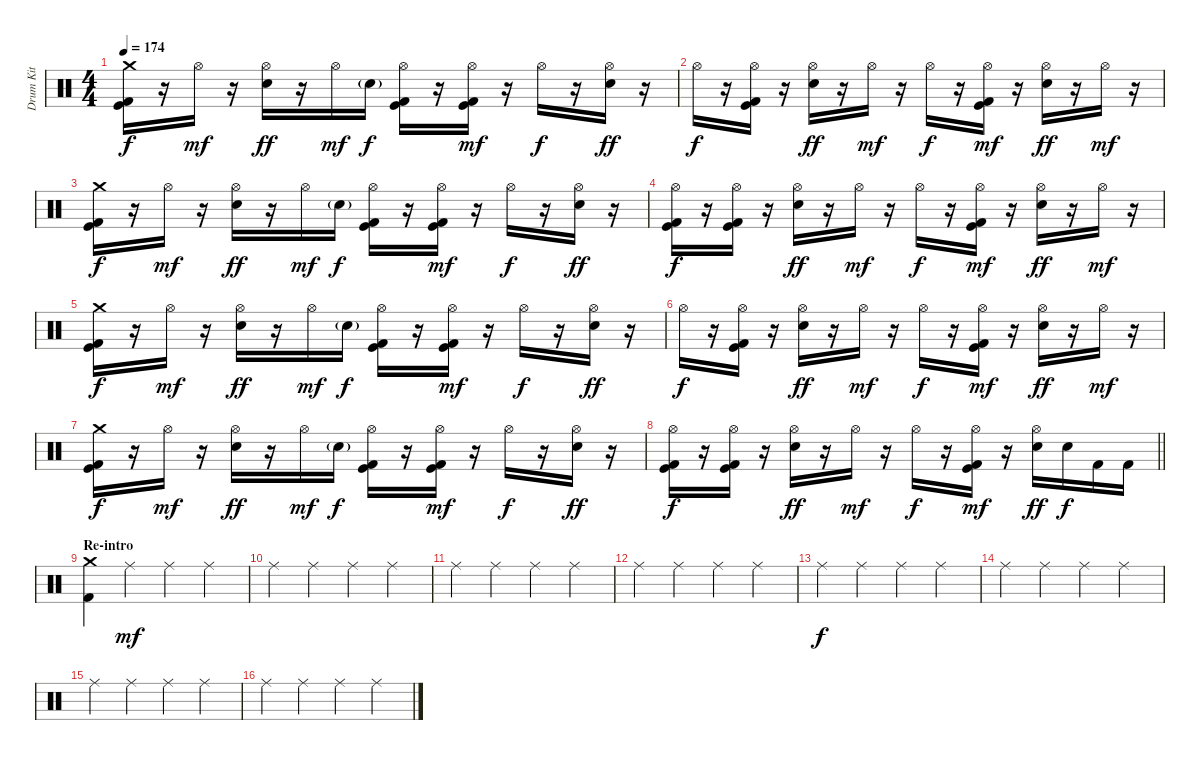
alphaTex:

\track ("Drum Kit" "Drum Kit") {instrument percussion}
\staff {score}
\articulation defaults
\ts (4 4)
\tempo 174
\clef neutral
\ks c
("Crash medium (hit)" "Kick (hit)" "Kick (hit) 2").16{dy f} r.16 "Hi-Hat (open)".16{dy mf} r.16 ("Hi-Hat (open)" "Electric Snare (hit)").16{dy ff} r.16 "Hi-Hat (open)".16{dy mf} "Electric Snare (hit)"{g}.16{dy f} ("Hi-Hat (open)" "Kick (hit)" "Kick (hit) 2").16 r.16 ("Hi-Hat (open)" "Kick (hit)" "Kick (hit) 2").16{dy mf} r.16 "Hi-Hat (open)".16{dy f} r.16 ("Hi-Hat (open)" "Electric Snare (hit)").16{dy ff} r.16 |
"Hi-Hat (open)".16{dy f} r.16 ("Hi-Hat (open)" "Kick (hit)" "Kick (hit) 2").16 r.16 ("Hi-Hat (open)" "Electric Snare (hit)").16{dy ff} r.16 "Hi-Hat (open)".16{dy mf} r.16 "Hi-Hat (open)".16{dy f} r.16 ("Hi-Hat (open)" "Kick (hit)" "Kick (hit) 2").16{dy mf} r.16 ("Hi-Hat (open)" "Electric Snare (hit)").16{dy ff} r.16 "Hi-Hat (open)".16{dy mf} r.16 |
("Crash medium (hit)" "Kick (hit)" "Kick (hit) 2").16{dy f} r.16 "Hi-Hat (open)".16{dy mf} r.16 ("Hi-Hat (open)" "Electric Snare (hit)").16{dy ff} r.16 "Hi-Hat (open)".16{dy mf} "Electric Snare (hit)"{g}.16{dy f} ("Hi-Hat (open)" "Kick (hit)" "Kick (hit) 2").16 r.16 ("Hi-Hat (open)" "Kick (hit)" "Kick (hit) 2").16{dy mf} r.16 "Hi-Hat (open)".16{dy f} r.16 ("Hi-Hat (open)" "Electric Snare (hit)").16{dy ff} r.16 |
("Hi-Hat (open)" "Kick (hit)" "Kick (hit) 2").16{dy f} r.16 ("Hi-Hat (open)" "Kick (hit)" "Kick (hit) 2").16 r.16 ("Hi-Hat (open)" "Electric Snare (hit)").16{dy ff} r.16 "Hi-Hat (open)".16{dy mf} r.16 "Hi-Hat (open)".16{dy f} r.16 ("Hi-Hat (open)" "Kick (hit)" "Kick (hit) 2").16{dy mf} r.16 ("Hi-Hat (open)" "Electric Snare (hit)").16{dy ff} r.16 "Hi-Hat (open)".16{dy mf} r.16 |
("Crash medium (hit)" "Kick (hit)" "Kick (hit) 2").16{dy f} r.16 "Hi-Hat (open)".16{dy mf} r.16 ("Hi-Hat (open)" "Electric Snare (hit)").16{dy ff} r.16 "Hi-Hat (open)".16{dy mf} "Electric Snare (hit)"{g}.16{dy f} ("Hi-Hat (open)" "Kick (hit)" "Kick (hit) 2").16 r.16 ("Hi-Hat (open)" "Kick (hit)" "Kick (hit) 2").16{dy mf} r.16 "Hi-Hat (open)".16{dy f} r.16 ("Hi-Hat (open)" "Electric Snare (hit)").16{dy ff} r.16 |
"Hi-Hat (open)".16{dy f} r.16 ("Hi-Hat (open)" "Kick (hit)" "Kick (hit) 2").16 r.16 ("Hi-Hat (open)" "Electric Snare (hit)").16{dy ff} r.16 "Hi-Hat (open)".16{dy mf} r.16 "Hi-Hat (open)".16{dy f} r.16 ("Hi-Hat (open)" "Kick (hit)" "Kick (hit) 2").16{dy mf} r.16 ("Hi-Hat (open)" "Electric Snare (hit)").16{dy ff} r.16 "Hi-Hat (open)".16{dy mf} r.16 |
("Crash medium (hit)" "Kick (hit)" "Kick (hit) 2").16{dy f} r.16 "Hi-Hat (open)".16{dy mf} r.16 ("Hi-Hat (open)" "Electric Snare (hit)").16{dy ff} r.16 "Hi-Hat (open)".16{dy mf} "Electric Snare (hit)"{g}.16{dy f} ("Hi-Hat (open)" "Kick (hit)" "Kick (hit) 2").16 r.16 ("Hi-Hat (open)" "Kick (hit)" "Kick (hit) 2").16{dy mf} r.16 "Hi-Hat (open)".16{dy f} r.16 ("Hi-Hat (open)" "Electric Snare (hit)").16{dy ff} r.16 |
\barLineRight lightlight
("Hi-Hat (open)" "Kick (hit)" "Kick (hit) 2").16{dy f} r.16 ("Hi-Hat (open)" "Kick (hit)" "Kick (hit) 2").16 r.16 ("Hi-Hat (open)" "Electric Snare (hit)").16{dy ff} r.16 "Hi-Hat (open)".16{dy mf} r.16 "Hi-Hat (open)".16{dy f} r.16 ("Hi-Hat (open)" "Kick (hit)" "Kick (hit) 2").16{dy mf} r.16 ("Hi-Hat (open)" "Electric Snare (hit)").16{dy ff} "Electric Snare (hit)".16{dy f} "Kick (hit) 2".16 "Kick (hit) 2".16 |
\section ("" "Re-intro")
("Crash medium (hit)" "Kick (hit) 2").4 "Ride (middle)".4{dy mf} "Ride (middle)".4 "Ride (middle)".4 |
"Ride (middle)".4 "Ride (middle)".4 "Ride (middle)".4 "Ride (middle)".4 |
"Ride (middle)".4 "Ride (middle)".4 "Ride (middle)".4 "Ride (middle)".4 |
"Ride (middle)".4 "Ride (middle)".4 "Ride (middle)".4 "Ride (middle)".4 |
"Ride (middle)".4{dy f} "Ride (middle)".4 "Ride (middle)".4 "Ride (middle)".4 |
"Ride (middle)".4 "Ride (middle)".4 "Ride (middle)".4 "Ride (middle)".4 |
"Ride (middle)".4 "Ride (middle)".4 "Ride (middle)".4 "Ride (middle)".4 |
"Ride (middle)".4 "Ride (middle)".4 "Ride (middle)".4 "Ride (middle)".4
